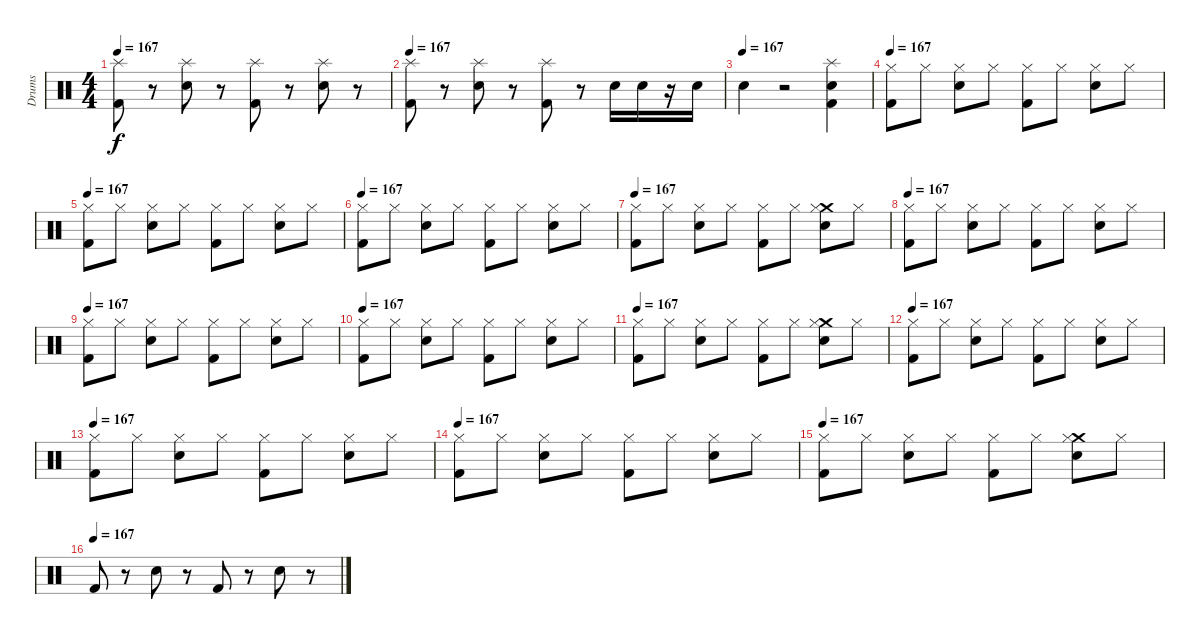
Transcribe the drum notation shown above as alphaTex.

\track ("Drums" "Drums") {instrument percussion}
\staff {score}
\articulation defaults
\ts (4 4)
\tempo 167
\clef neutral
\ks c
("Splash (hit)" "Kick (hit) 2").8{dy f} r.8 ("Electric Snare (hit)" "Splash (hit)").8 r.8 ("Splash (hit)" "Kick (hit) 2").8 r.8 ("Electric Snare (hit)" "Splash (hit)").8 r.8 |
\tempo 167
("Kick (hit) 2" "Splash (hit)").8 r.8 ("Electric Snare (hit)" "Splash (hit)").8 r.8 ("Kick (hit) 2" "Splash (hit)").8 r.8 "Electric Snare (hit)".16 "Electric Snare (hit)".16 r.16 "Electric Snare (hit)".16 |
\tempo (167)
"Electric Snare (hit)".4 r.2 ("Splash (hit)" "Kick (hit) 2" "Electric Snare (hit)").4 |
\tempo 167
("Kick (hit) 2" "Hi-Hat (closed)").8 "Hi-Hat (closed)".8 ("Hi-Hat (closed)" "Electric Snare (hit)").8 "Hi-Hat (closed)".8 ("Hi-Hat (closed)" "Kick (hit) 2").8 "Hi-Hat (closed)".8 ("Hi-Hat (closed)" "Electric Snare (hit)").8 "Hi-Hat (closed)".8 |
\tempo 167
("Kick (hit) 2" "Hi-Hat (closed)").8 "Hi-Hat (closed)".8 ("Hi-Hat (closed)" "Electric Snare (hit)").8 "Hi-Hat (closed)".8 ("Hi-Hat (closed)" "Kick (hit) 2").8 "Hi-Hat (closed)".8 ("Hi-Hat (closed)" "Electric Snare (hit)").8 "Hi-Hat (closed)".8 |
\tempo 167
("Kick (hit) 2" "Hi-Hat (closed)").8 "Hi-Hat (closed)".8 ("Hi-Hat (closed)" "Electric Snare (hit)").8 "Hi-Hat (closed)".8 ("Hi-Hat (closed)" "Kick (hit) 2").8 "Hi-Hat (closed)".8 ("Hi-Hat (closed)" "Electric Snare (hit)").8 "Hi-Hat (closed)".8 |
\tempo 167
("Kick (hit) 2" "Hi-Hat (closed)").8 "Hi-Hat (closed)".8 ("Hi-Hat (closed)" "Electric Snare (hit)").8 "Hi-Hat (closed)".8 ("Hi-Hat (closed)" "Kick (hit) 2").8 "Hi-Hat (closed)".8 ("Crash medium (hit)" "Hi-Hat (closed)" "Electric Snare (hit)").8 "Hi-Hat (closed)".8 |
\tempo 167
("Kick (hit) 2" "Hi-Hat (closed)").8 "Hi-Hat (closed)".8 ("Hi-Hat (closed)" "Electric Snare (hit)").8 "Hi-Hat (closed)".8 ("Hi-Hat (closed)" "Kick (hit) 2").8 "Hi-Hat (closed)".8 ("Hi-Hat (closed)" "Electric Snare (hit)").8 "Hi-Hat (closed)".8 |
\tempo 167
("Kick (hit) 2" "Hi-Hat (closed)").8 "Hi-Hat (closed)".8 ("Hi-Hat (closed)" "Electric Snare (hit)").8 "Hi-Hat (closed)".8 ("Hi-Hat (closed)" "Kick (hit) 2").8 "Hi-Hat (closed)".8 ("Hi-Hat (closed)" "Electric Snare (hit)").8 "Hi-Hat (closed)".8 |
\tempo 167
("Kick (hit) 2" "Hi-Hat (closed)").8 "Hi-Hat (closed)".8 ("Hi-Hat (closed)" "Electric Snare (hit)").8 "Hi-Hat (closed)".8 ("Hi-Hat (closed)" "Kick (hit) 2").8 "Hi-Hat (closed)".8 ("Hi-Hat (closed)" "Electric Snare (hit)").8 "Hi-Hat (closed)".8 |
\tempo 167
("Kick (hit) 2" "Hi-Hat (closed)").8 "Hi-Hat (closed)".8 ("Hi-Hat (closed)" "Electric Snare (hit)").8 "Hi-Hat (closed)".8 ("Hi-Hat (closed)" "Kick (hit) 2").8 "Hi-Hat (closed)".8 ("Crash medium (hit)" "Hi-Hat (closed)" "Electric Snare (hit)").8 "Hi-Hat (closed)".8 |
\tempo 167
("Kick (hit) 2" "Hi-Hat (closed)").8 "Hi-Hat (closed)".8 ("Hi-Hat (closed)" "Electric Snare (hit)").8 "Hi-Hat (closed)".8 ("Hi-Hat (closed)" "Kick (hit) 2").8 "Hi-Hat (closed)".8 ("Hi-Hat (closed)" "Electric Snare (hit)").8 "Hi-Hat (closed)".8 |
\tempo 167
("Kick (hit) 2" "Hi-Hat (closed)").8 "Hi-Hat (closed)".8 ("Hi-Hat (closed)" "Electric Snare (hit)").8 "Hi-Hat (closed)".8 ("Hi-Hat (closed)" "Kick (hit) 2").8 "Hi-Hat (closed)".8 ("Hi-Hat (closed)" "Electric Snare (hit)").8 "Hi-Hat (closed)".8 |
\tempo 167
("Kick (hit) 2" "Hi-Hat (closed)").8 "Hi-Hat (closed)".8 ("Hi-Hat (closed)" "Electric Snare (hit)").8 "Hi-Hat (closed)".8 ("Hi-Hat (closed)" "Kick (hit) 2").8 "Hi-Hat (closed)".8 ("Hi-Hat (closed)" "Electric Snare (hit)").8 "Hi-Hat (closed)".8 |
\tempo 167
("Kick (hit) 2" "Hi-Hat (closed)").8 "Hi-Hat (closed)".8 ("Hi-Hat (closed)" "Electric Snare (hit)").8 "Hi-Hat (closed)".8 ("Hi-Hat (closed)" "Kick (hit) 2").8 "Hi-Hat (closed)".8 ("Crash medium (hit)" "Hi-Hat (closed)" "Electric Snare (hit)").8 "Hi-Hat (closed)".8 |
\tempo (167)
"Kick (hit) 2".8 r.8 "Electric Snare (hit)".8 r.8 "Kick (hit) 2".8 r.8 "Electric Snare (hit)".8 r.8
